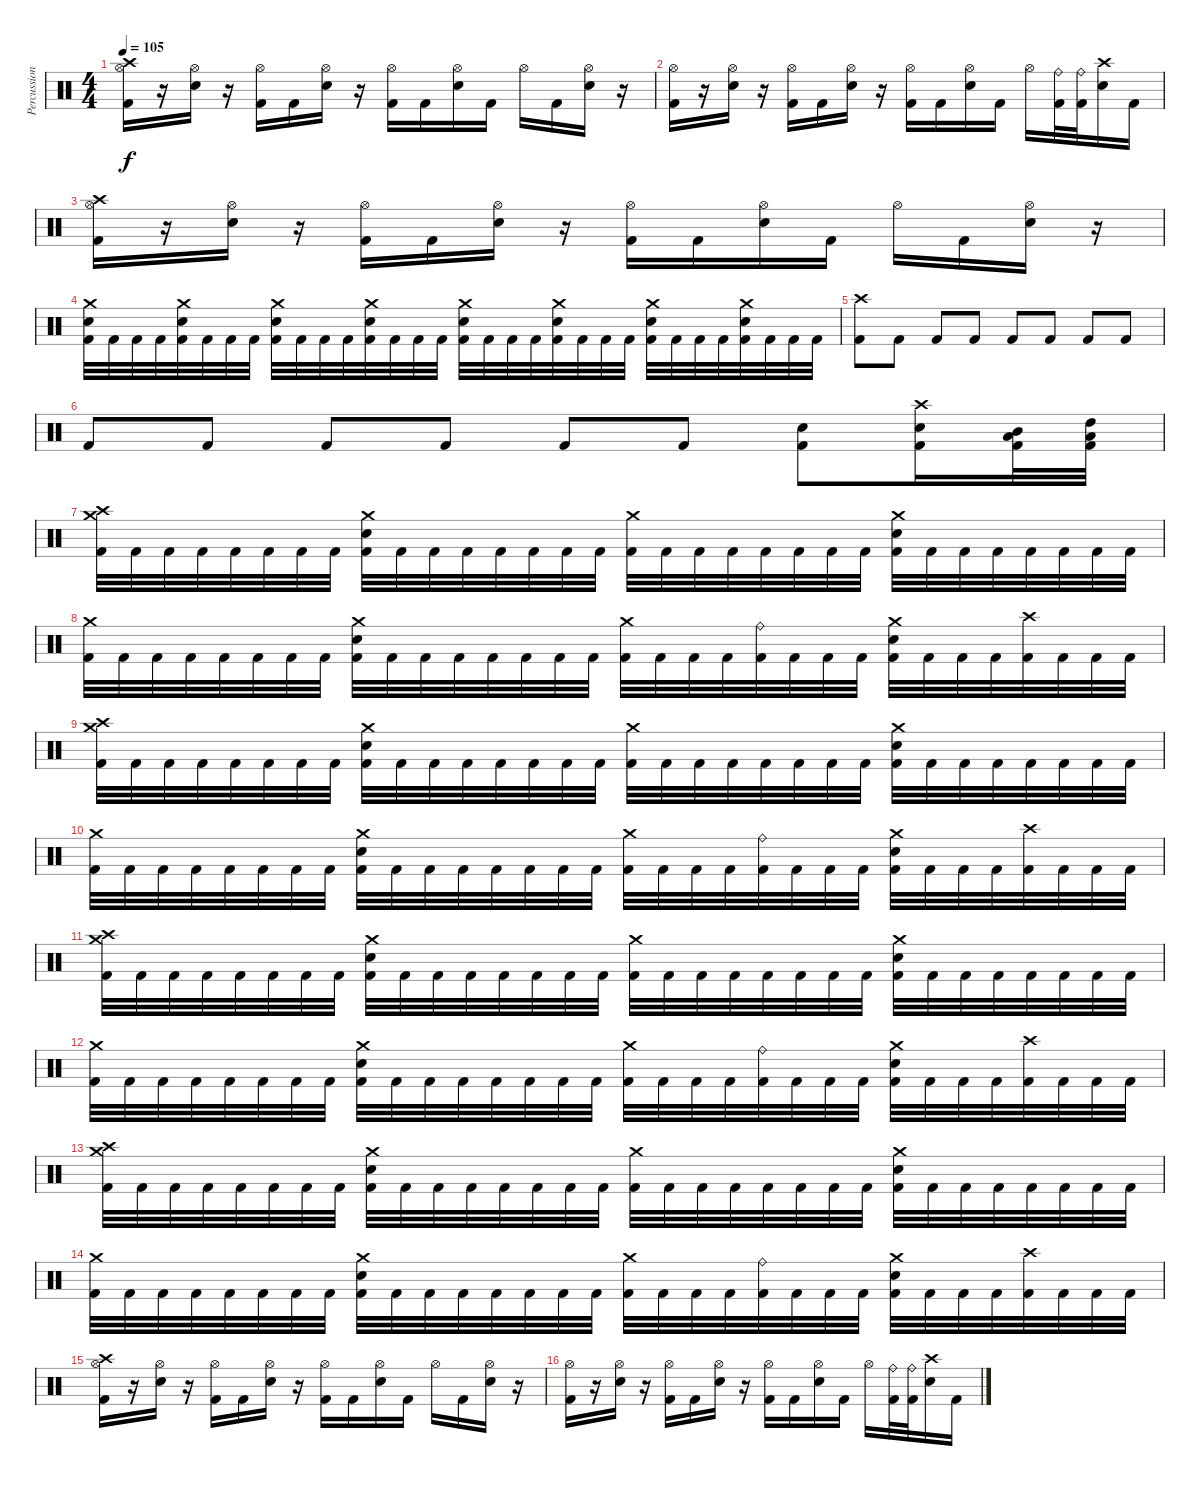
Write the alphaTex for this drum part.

\track ("Percussion" "Percussion") {instrument percussion}
\staff {score}
\articulation defaults
\ts (4 4)
\tempo 105
\clef neutral
\ks c
("Hi-Hat (open)" "Crash high (hit)" "Kick (hit) 2").16{dy f} r.16 ("Hi-Hat (open)" "Electric Snare (hit)").16 r.16 ("Hi-Hat (open)" "Kick (hit) 2").16 "Kick (hit) 2".16 ("Hi-Hat (open)" "Electric Snare (hit)").16 r.16 ("Hi-Hat (open)" "Kick (hit) 2").16 "Kick (hit) 2".16 ("Hi-Hat (open)" "Electric Snare (hit)").16 "Kick (hit) 2".16 "Hi-Hat (open)".16 "Kick (hit) 2".16 ("Hi-Hat (open)" "Electric Snare (hit)").16 r.16 |
("Hi-Hat (open)" "Kick (hit) 2").16 r.16 ("Hi-Hat (open)" "Electric Snare (hit)").16 r.16 ("Hi-Hat (open)" "Kick (hit) 2").16 "Kick (hit) 2".16 ("Hi-Hat (open)" "Electric Snare (hit)").16 r.16 ("Hi-Hat (open)" "Kick (hit) 2").16 "Kick (hit) 2".16 ("Hi-Hat (open)" "Electric Snare (hit)").16 "Kick (hit) 2".16 "Hi-Hat (open)".16 ("Ride (bell)" "Kick (hit) 2").32 ("Ride (bell)" "Kick (hit) 2").32 ("Crash high (hit)" "Electric Snare (hit)").16 "Kick (hit) 2".16 |
("Hi-Hat (open)" "Crash high (hit)" "Kick (hit) 2").16 r.16 ("Hi-Hat (open)" "Electric Snare (hit)").16 r.16 ("Hi-Hat (open)" "Kick (hit) 2").16 "Kick (hit) 2".16 ("Hi-Hat (open)" "Electric Snare (hit)").16 r.16 ("Hi-Hat (open)" "Kick (hit) 2").16 "Kick (hit) 2".16 ("Hi-Hat (open)" "Electric Snare (hit)").16 "Kick (hit) 2".16 "Hi-Hat (open)".16 "Kick (hit) 2".16 ("Hi-Hat (open)" "Electric Snare (hit)").16 r.16 |
("Crash medium (hit)" "Electric Snare (hit)" "Kick (hit) 2").32 "Kick (hit) 2".32 "Kick (hit) 2".32 "Kick (hit) 2".32 ("Crash medium (hit)" "Electric Snare (hit)" "Kick (hit) 2").32 "Kick (hit) 2".32 "Kick (hit) 2".32 "Kick (hit) 2".32 ("Crash medium (hit)" "Electric Snare (hit)" "Kick (hit) 2").32 "Kick (hit) 2".32 "Kick (hit) 2".32 "Kick (hit) 2".32 ("Crash medium (hit)" "Electric Snare (hit)" "Kick (hit) 2").32 "Kick (hit) 2".32 "Kick (hit) 2".32 "Kick (hit) 2".32 ("Crash medium (hit)" "Electric Snare (hit)" "Kick (hit) 2").32 "Kick (hit) 2".32 "Kick (hit) 2".32 "Kick (hit) 2".32 ("Crash medium (hit)" "Electric Snare (hit)" "Kick (hit) 2").32 "Kick (hit) 2".32 "Kick (hit) 2".32 "Kick (hit) 2".32 ("Crash medium (hit)" "Electric Snare (hit)" "Kick (hit) 2").32 "Kick (hit) 2".32 "Kick (hit) 2".32 "Kick (hit) 2".32 ("Crash medium (hit)" "Electric Snare (hit)" "Kick (hit) 2").32 "Kick (hit) 2".32 "Kick (hit) 2".32 "Kick (hit) 2".32 |
("Crash high (hit)" "Kick (hit) 2").8 "Kick (hit) 2".8 "Kick (hit) 2".8 "Kick (hit) 2".8 "Kick (hit) 2".8 "Kick (hit) 2".8 "Kick (hit) 2".8 "Kick (hit) 2".8 |
"Kick (hit) 2".8 "Kick (hit) 2".8 "Kick (hit) 2".8 "Kick (hit) 2".8 "Kick (hit) 2".8 "Kick (hit) 2".8 ("Electric Snare (hit)" "Kick (hit) 2").8 ("Crash high (hit)" "Electric Snare (hit)" "Kick (hit) 2").16 ("Mid Tom (hit)" "Low Tom (hit)" "Kick (hit) 2").32 ("High Tom (hit)" "Low Tom (hit)" "Kick (hit) 2").32 |
("Crash medium (hit)" "Crash high (hit)" "Kick (hit) 2").32 "Kick (hit) 2".32 "Kick (hit) 2".32 "Kick (hit) 2".32 "Kick (hit) 2".32 "Kick (hit) 2".32 "Kick (hit) 2".32 "Kick (hit) 2".32 ("Crash medium (hit)" "Electric Snare (hit)" "Kick (hit) 2").32 "Kick (hit) 2".32 "Kick (hit) 2".32 "Kick (hit) 2".32 "Kick (hit) 2".32 "Kick (hit) 2".32 "Kick (hit) 2".32 "Kick (hit) 2".32 ("Crash medium (hit)" "Kick (hit) 2").32 "Kick (hit) 2".32 "Kick (hit) 2".32 "Kick (hit) 2".32 "Kick (hit) 2".32 "Kick (hit) 2".32 "Kick (hit) 2".32 "Kick (hit) 2".32 ("Crash medium (hit)" "Electric Snare (hit)" "Kick (hit) 2").32 "Kick (hit) 2".32 "Kick (hit) 2".32 "Kick (hit) 2".32 "Kick (hit) 2".32 "Kick (hit) 2".32 "Kick (hit) 2".32 "Kick (hit) 2".32 |
("Crash medium (hit)" "Kick (hit) 2").32 "Kick (hit) 2".32 "Kick (hit) 2".32 "Kick (hit) 2".32 "Kick (hit) 2".32 "Kick (hit) 2".32 "Kick (hit) 2".32 "Kick (hit) 2".32 ("Crash medium (hit)" "Electric Snare (hit)" "Kick (hit) 2").32 "Kick (hit) 2".32 "Kick (hit) 2".32 "Kick (hit) 2".32 "Kick (hit) 2".32 "Kick (hit) 2".32 "Kick (hit) 2".32 "Kick (hit) 2".32 ("Crash medium (hit)" "Kick (hit) 2").32 "Kick (hit) 2".32 "Kick (hit) 2".32 "Kick (hit) 2".32 ("Ride (bell)" "Kick (hit) 2").32 "Kick (hit) 2".32 "Kick (hit) 2".32 "Kick (hit) 2".32 ("Crash medium (hit)" "Electric Snare (hit)" "Kick (hit) 2").32 "Kick (hit) 2".32 "Kick (hit) 2".32 "Kick (hit) 2".32 ("Crash high (hit)" "Kick (hit) 2").32 "Kick (hit) 2".32 "Kick (hit) 2".32 "Kick (hit) 2".32 |
("Crash medium (hit)" "Crash high (hit)" "Kick (hit) 2").32 "Kick (hit) 2".32 "Kick (hit) 2".32 "Kick (hit) 2".32 "Kick (hit) 2".32 "Kick (hit) 2".32 "Kick (hit) 2".32 "Kick (hit) 2".32 ("Crash medium (hit)" "Electric Snare (hit)" "Kick (hit) 2").32 "Kick (hit) 2".32 "Kick (hit) 2".32 "Kick (hit) 2".32 "Kick (hit) 2".32 "Kick (hit) 2".32 "Kick (hit) 2".32 "Kick (hit) 2".32 ("Crash medium (hit)" "Kick (hit) 2").32 "Kick (hit) 2".32 "Kick (hit) 2".32 "Kick (hit) 2".32 "Kick (hit) 2".32 "Kick (hit) 2".32 "Kick (hit) 2".32 "Kick (hit) 2".32 ("Crash medium (hit)" "Electric Snare (hit)" "Kick (hit) 2").32 "Kick (hit) 2".32 "Kick (hit) 2".32 "Kick (hit) 2".32 "Kick (hit) 2".32 "Kick (hit) 2".32 "Kick (hit) 2".32 "Kick (hit) 2".32 |
("Crash medium (hit)" "Kick (hit) 2").32 "Kick (hit) 2".32 "Kick (hit) 2".32 "Kick (hit) 2".32 "Kick (hit) 2".32 "Kick (hit) 2".32 "Kick (hit) 2".32 "Kick (hit) 2".32 ("Crash medium (hit)" "Electric Snare (hit)" "Kick (hit) 2").32 "Kick (hit) 2".32 "Kick (hit) 2".32 "Kick (hit) 2".32 "Kick (hit) 2".32 "Kick (hit) 2".32 "Kick (hit) 2".32 "Kick (hit) 2".32 ("Crash medium (hit)" "Kick (hit) 2").32 "Kick (hit) 2".32 "Kick (hit) 2".32 "Kick (hit) 2".32 ("Ride (bell)" "Kick (hit) 2").32 "Kick (hit) 2".32 "Kick (hit) 2".32 "Kick (hit) 2".32 ("Crash medium (hit)" "Electric Snare (hit)" "Kick (hit) 2").32 "Kick (hit) 2".32 "Kick (hit) 2".32 "Kick (hit) 2".32 ("Crash high (hit)" "Kick (hit) 2").32 "Kick (hit) 2".32 "Kick (hit) 2".32 "Kick (hit) 2".32 |
("Crash medium (hit)" "Crash high (hit)" "Kick (hit) 2").32 "Kick (hit) 2".32 "Kick (hit) 2".32 "Kick (hit) 2".32 "Kick (hit) 2".32 "Kick (hit) 2".32 "Kick (hit) 2".32 "Kick (hit) 2".32 ("Crash medium (hit)" "Electric Snare (hit)" "Kick (hit) 2").32 "Kick (hit) 2".32 "Kick (hit) 2".32 "Kick (hit) 2".32 "Kick (hit) 2".32 "Kick (hit) 2".32 "Kick (hit) 2".32 "Kick (hit) 2".32 ("Crash medium (hit)" "Kick (hit) 2").32 "Kick (hit) 2".32 "Kick (hit) 2".32 "Kick (hit) 2".32 "Kick (hit) 2".32 "Kick (hit) 2".32 "Kick (hit) 2".32 "Kick (hit) 2".32 ("Crash medium (hit)" "Electric Snare (hit)" "Kick (hit) 2").32 "Kick (hit) 2".32 "Kick (hit) 2".32 "Kick (hit) 2".32 "Kick (hit) 2".32 "Kick (hit) 2".32 "Kick (hit) 2".32 "Kick (hit) 2".32 |
("Crash medium (hit)" "Kick (hit) 2").32 "Kick (hit) 2".32 "Kick (hit) 2".32 "Kick (hit) 2".32 "Kick (hit) 2".32 "Kick (hit) 2".32 "Kick (hit) 2".32 "Kick (hit) 2".32 ("Crash medium (hit)" "Electric Snare (hit)" "Kick (hit) 2").32 "Kick (hit) 2".32 "Kick (hit) 2".32 "Kick (hit) 2".32 "Kick (hit) 2".32 "Kick (hit) 2".32 "Kick (hit) 2".32 "Kick (hit) 2".32 ("Crash medium (hit)" "Kick (hit) 2").32 "Kick (hit) 2".32 "Kick (hit) 2".32 "Kick (hit) 2".32 ("Ride (bell)" "Kick (hit) 2").32 "Kick (hit) 2".32 "Kick (hit) 2".32 "Kick (hit) 2".32 ("Crash medium (hit)" "Electric Snare (hit)" "Kick (hit) 2").32 "Kick (hit) 2".32 "Kick (hit) 2".32 "Kick (hit) 2".32 ("Crash high (hit)" "Kick (hit) 2").32 "Kick (hit) 2".32 "Kick (hit) 2".32 "Kick (hit) 2".32 |
("Crash medium (hit)" "Crash high (hit)" "Kick (hit) 2").32 "Kick (hit) 2".32 "Kick (hit) 2".32 "Kick (hit) 2".32 "Kick (hit) 2".32 "Kick (hit) 2".32 "Kick (hit) 2".32 "Kick (hit) 2".32 ("Crash medium (hit)" "Electric Snare (hit)" "Kick (hit) 2").32 "Kick (hit) 2".32 "Kick (hit) 2".32 "Kick (hit) 2".32 "Kick (hit) 2".32 "Kick (hit) 2".32 "Kick (hit) 2".32 "Kick (hit) 2".32 ("Crash medium (hit)" "Kick (hit) 2").32 "Kick (hit) 2".32 "Kick (hit) 2".32 "Kick (hit) 2".32 "Kick (hit) 2".32 "Kick (hit) 2".32 "Kick (hit) 2".32 "Kick (hit) 2".32 ("Crash medium (hit)" "Electric Snare (hit)" "Kick (hit) 2").32 "Kick (hit) 2".32 "Kick (hit) 2".32 "Kick (hit) 2".32 "Kick (hit) 2".32 "Kick (hit) 2".32 "Kick (hit) 2".32 "Kick (hit) 2".32 |
("Crash medium (hit)" "Kick (hit) 2").32 "Kick (hit) 2".32 "Kick (hit) 2".32 "Kick (hit) 2".32 "Kick (hit) 2".32 "Kick (hit) 2".32 "Kick (hit) 2".32 "Kick (hit) 2".32 ("Crash medium (hit)" "Electric Snare (hit)" "Kick (hit) 2").32 "Kick (hit) 2".32 "Kick (hit) 2".32 "Kick (hit) 2".32 "Kick (hit) 2".32 "Kick (hit) 2".32 "Kick (hit) 2".32 "Kick (hit) 2".32 ("Crash medium (hit)" "Kick (hit) 2").32 "Kick (hit) 2".32 "Kick (hit) 2".32 "Kick (hit) 2".32 ("Ride (bell)" "Kick (hit) 2").32 "Kick (hit) 2".32 "Kick (hit) 2".32 "Kick (hit) 2".32 ("Crash medium (hit)" "Electric Snare (hit)" "Kick (hit) 2").32 "Kick (hit) 2".32 "Kick (hit) 2".32 "Kick (hit) 2".32 ("Crash high (hit)" "Kick (hit) 2").32 "Kick (hit) 2".32 "Kick (hit) 2".32 "Kick (hit) 2".32 |
("Hi-Hat (open)" "Crash high (hit)" "Kick (hit) 2").16 r.16 ("Hi-Hat (open)" "Electric Snare (hit)").16 r.16 ("Hi-Hat (open)" "Kick (hit) 2").16 "Kick (hit) 2".16 ("Hi-Hat (open)" "Electric Snare (hit)").16 r.16 ("Hi-Hat (open)" "Kick (hit) 2").16 "Kick (hit) 2".16 ("Hi-Hat (open)" "Electric Snare (hit)").16 "Kick (hit) 2".16 "Hi-Hat (open)".16 "Kick (hit) 2".16 ("Hi-Hat (open)" "Electric Snare (hit)").16 r.16 |
("Hi-Hat (open)" "Kick (hit) 2").16 r.16 ("Hi-Hat (open)" "Electric Snare (hit)").16 r.16 ("Hi-Hat (open)" "Kick (hit) 2").16 "Kick (hit) 2".16 ("Hi-Hat (open)" "Electric Snare (hit)").16 r.16 ("Hi-Hat (open)" "Kick (hit) 2").16 "Kick (hit) 2".16 ("Hi-Hat (open)" "Electric Snare (hit)").16 "Kick (hit) 2".16 "Hi-Hat (open)".16 ("Ride (bell)" "Kick (hit) 2").32 ("Ride (bell)" "Kick (hit) 2").32 ("Crash high (hit)" "Electric Snare (hit)").16 "Kick (hit) 2".16
